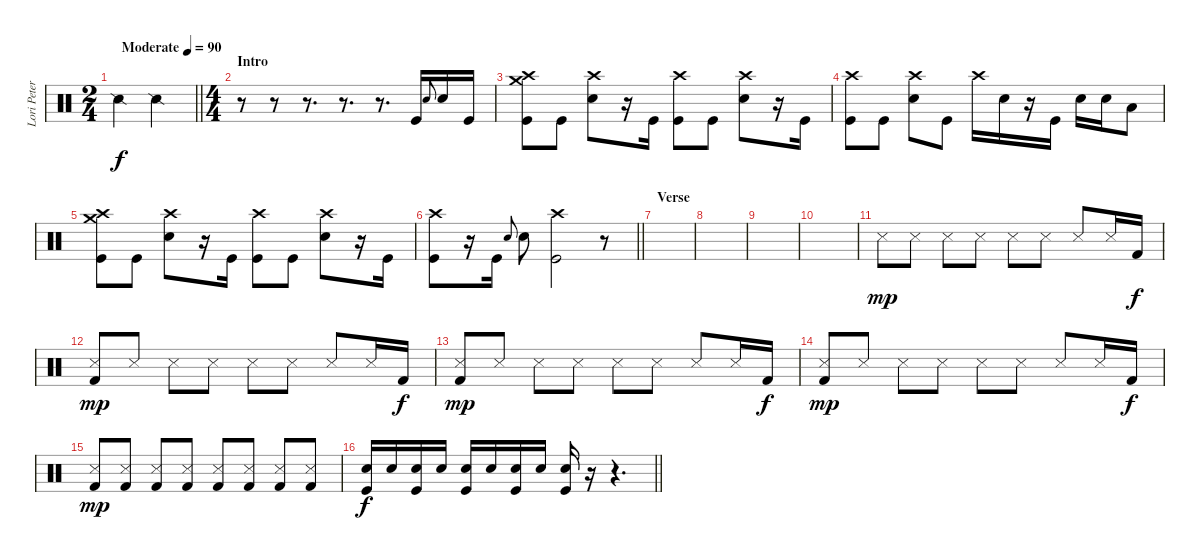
\track ("Lori Peters" "Lori Peter") {instrument percussion}
\staff {score}
\articulation defaults
\ts (2 4)
\tempo (90 "Moderate")
\clef neutral
\barLineRight lightlight
\ks c "Snare (side stick) 2".4{dy f} "Snare (side stick) 2".4
|
\ts (4 4)
\section ("" "Intro")
r.8 r.8 r.8{d} r.8{d} r.8{d} "Kick (hit)".16 "Electric Snare (hit)".8{gr onbeat} "Electric Snare (hit)".16 "Kick (hit)".16 |
("Crash high (hit)" "Crash medium (hit)" "Kick (hit)").8 "Kick (hit)".8 ("Crash high (hit)" "Electric Snare (hit)").8 r.16 "Kick (hit)".16 ("Crash high (hit)" "Kick (hit)").8 "Kick (hit)".8 ("Crash high (hit)" "Electric Snare (hit)").8 r.16 "Kick (hit)".16 |
("Crash high (hit)" "Kick (hit)").8 "Kick (hit)".8 ("Crash high (hit)" "Electric Snare (hit)").8 "Kick (hit)".8 "Crash high (hit)".16 "Electric Snare (hit)".16 r.16 "Kick (hit)".16 "Electric Snare (hit)".16 "Electric Snare (hit)".16 "Low Tom (hit)".8 |
("Crash high (hit)" "Crash medium (hit)" "Kick (hit)").8 "Kick (hit)".8 ("Crash high (hit)" "Electric Snare (hit)").8 r.16 "Kick (hit)".16 ("Crash high (hit)" "Kick (hit)").8 "Kick (hit)".8 ("Crash high (hit)" "Electric Snare (hit)").8 r.16 "Kick (hit)".16 |
\barLineRight lightlight
("Crash high (hit)" "Kick (hit)").8 r.16 "Kick (hit)".16 "Electric Snare (hit)".8{gr onbeat} "Electric Snare (hit)".8 ("Crash high (hit)" "Kick (hit)").2 r.8 |
\section ("" "Verse")
|
|
|
|
"Snare (side stick) 3".8{dy mp} "Snare (side stick) 3".8 "Snare (side stick) 3".8 "Snare (side stick) 3".8 "Snare (side stick) 3".8 "Snare (side stick) 3".8 "Snare (side stick) 3".8 "Snare (side stick) 3".16 "Kick (hit) 2".16{dy f} |
("Snare (side stick) 3" "Kick (hit) 2").8{dy mp} "Snare (side stick) 3".8 "Snare (side stick) 3".8 "Snare (side stick) 3".8 "Snare (side stick) 3".8 "Snare (side stick) 3".8 "Snare (side stick) 3".8 "Snare (side stick) 3".16 "Kick (hit) 2".16{dy f} |
("Snare (side stick) 3" "Kick (hit) 2").8{dy mp} "Snare (side stick) 3".8 "Snare (side stick) 3".8 "Snare (side stick) 3".8 "Snare (side stick) 3".8 "Snare (side stick) 3".8 "Snare (side stick) 3".8 "Snare (side stick) 3".16 "Kick (hit) 2".16{dy f} |
("Snare (side stick) 3" "Kick (hit) 2").8{dy mp} "Snare (side stick) 3".8 "Snare (side stick) 3".8 "Snare (side stick) 3".8 "Snare (side stick) 3".8 "Snare (side stick) 3".8 "Snare (side stick) 3".8 "Snare (side stick) 3".16 "Kick (hit) 2".16{dy f} |
("Snare (side stick) 3" "Kick (hit) 2").8{dy mp} ("Snare (side stick) 3" "Kick (hit) 2").8 ("Snare (side stick) 3" "Kick (hit) 2").8 ("Snare (side stick) 3" "Kick (hit) 2").8 ("Snare (side stick) 3" "Kick (hit) 2").8 ("Snare (side stick) 3" "Kick (hit) 2").8 ("Snare (side stick) 3" "Kick (hit) 2").8 ("Snare (side stick) 3" "Kick (hit) 2").8 |
\barLineRight lightlight
("Electric Snare (hit)" "Kick (hit)").16{dy f volume 11} "Electric Snare (hit)".16{volume 16} ("Electric Snare (hit)" "Kick (hit)").16 "Electric Snare (hit)".16 ("Electric Snare (hit)" "Kick (hit)").16 "Electric Snare (hit)".16 ("Electric Snare (hit)" "Kick (hit)").16 "Electric Snare (hit)".16 ("Electric Snare (hit)" "Kick (hit)").16 r.16 r.4{d volume 11}
